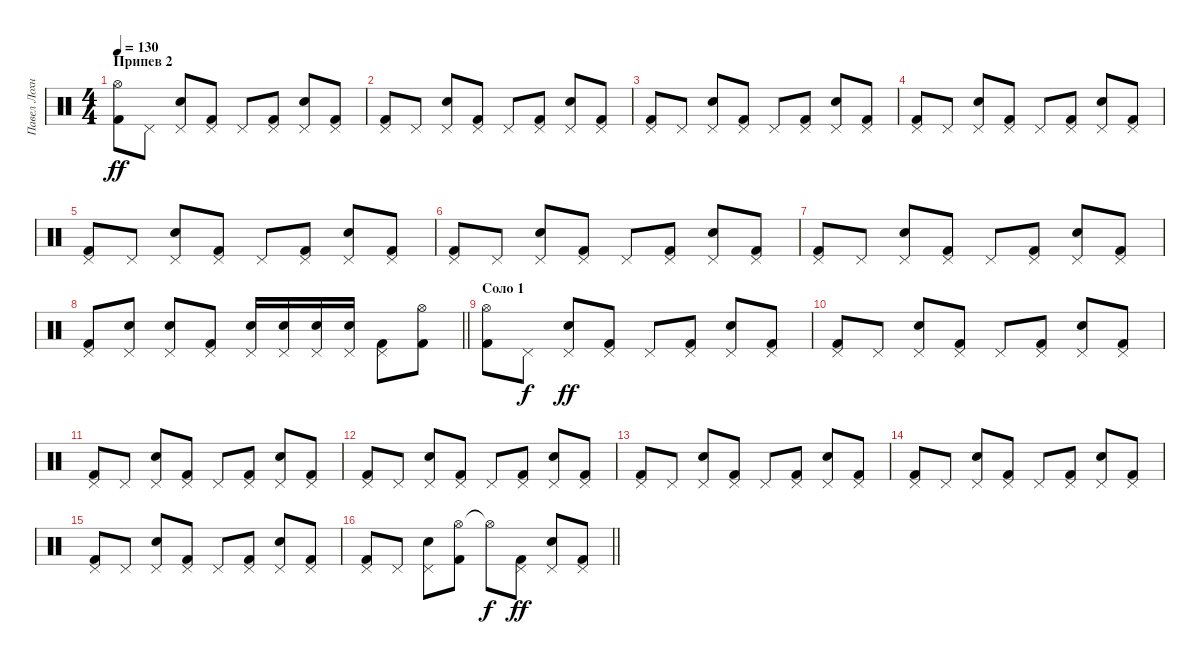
\track ("Павел Лохнин" "Павел Лохн") {instrument percussion}
\staff {score}
\articulation defaults
\ts (4 4)
\section ("" "Припев 2")
\tempo 130
\clef neutral
\ks c
("Hi-Hat (open)" "Kick (hit) 2").8{dy ff} "Pedal Hi-Hat (hit)".8 ("Pedal Hi-Hat (hit)" "Electric Snare (hit)").8 ("Pedal Hi-Hat (hit)" "Kick (hit) 2").8 "Pedal Hi-Hat (hit)".8 ("Pedal Hi-Hat (hit)" "Kick (hit) 2").8 ("Pedal Hi-Hat (hit)" "Electric Snare (hit)").8 ("Pedal Hi-Hat (hit)" "Kick (hit) 2").8 |
("Pedal Hi-Hat (hit)" "Kick (hit) 2").8 "Pedal Hi-Hat (hit)".8 ("Pedal Hi-Hat (hit)" "Electric Snare (hit)").8 ("Pedal Hi-Hat (hit)" "Kick (hit) 2").8 "Pedal Hi-Hat (hit)".8 ("Pedal Hi-Hat (hit)" "Kick (hit) 2").8 ("Pedal Hi-Hat (hit)" "Electric Snare (hit)").8 ("Pedal Hi-Hat (hit)" "Kick (hit) 2").8 |
("Pedal Hi-Hat (hit)" "Kick (hit) 2").8 "Pedal Hi-Hat (hit)".8 ("Pedal Hi-Hat (hit)" "Electric Snare (hit)").8 ("Pedal Hi-Hat (hit)" "Kick (hit) 2").8 "Pedal Hi-Hat (hit)".8 ("Pedal Hi-Hat (hit)" "Kick (hit) 2").8 ("Pedal Hi-Hat (hit)" "Electric Snare (hit)").8 ("Pedal Hi-Hat (hit)" "Kick (hit) 2").8 |
("Pedal Hi-Hat (hit)" "Kick (hit) 2").8 "Pedal Hi-Hat (hit)".8 ("Pedal Hi-Hat (hit)" "Electric Snare (hit)").8 ("Pedal Hi-Hat (hit)" "Kick (hit) 2").8 "Pedal Hi-Hat (hit)".8 ("Pedal Hi-Hat (hit)" "Kick (hit) 2").8 ("Pedal Hi-Hat (hit)" "Electric Snare (hit)").8 ("Pedal Hi-Hat (hit)" "Kick (hit) 2").8 |
("Pedal Hi-Hat (hit)" "Kick (hit) 2").8 "Pedal Hi-Hat (hit)".8 ("Pedal Hi-Hat (hit)" "Electric Snare (hit)").8 ("Pedal Hi-Hat (hit)" "Kick (hit) 2").8 "Pedal Hi-Hat (hit)".8 ("Pedal Hi-Hat (hit)" "Kick (hit) 2").8 ("Pedal Hi-Hat (hit)" "Electric Snare (hit)").8 ("Pedal Hi-Hat (hit)" "Kick (hit) 2").8 |
("Pedal Hi-Hat (hit)" "Kick (hit) 2").8 "Pedal Hi-Hat (hit)".8 ("Pedal Hi-Hat (hit)" "Electric Snare (hit)").8 ("Pedal Hi-Hat (hit)" "Kick (hit) 2").8 "Pedal Hi-Hat (hit)".8 ("Pedal Hi-Hat (hit)" "Kick (hit) 2").8 ("Pedal Hi-Hat (hit)" "Electric Snare (hit)").8 ("Pedal Hi-Hat (hit)" "Kick (hit) 2").8 |
("Pedal Hi-Hat (hit)" "Kick (hit) 2").8 "Pedal Hi-Hat (hit)".8 ("Pedal Hi-Hat (hit)" "Electric Snare (hit)").8 ("Pedal Hi-Hat (hit)" "Kick (hit) 2").8 "Pedal Hi-Hat (hit)".8 ("Pedal Hi-Hat (hit)" "Kick (hit) 2").8 ("Pedal Hi-Hat (hit)" "Electric Snare (hit)").8 ("Pedal Hi-Hat (hit)" "Kick (hit) 2").8 |
\barLineRight lightlight
("Pedal Hi-Hat (hit)" "Kick (hit) 2").8 ("Pedal Hi-Hat (hit)" "Electric Snare (hit)").8 ("Pedal Hi-Hat (hit)" "Electric Snare (hit)").8 ("Pedal Hi-Hat (hit)" "Kick (hit) 2").8 ("Pedal Hi-Hat (hit)" "Electric Snare (hit)").16 ("Pedal Hi-Hat (hit)" "Electric Snare (hit)").16 ("Pedal Hi-Hat (hit)" "Electric Snare (hit)").16 ("Pedal Hi-Hat (hit)" "Electric Snare (hit)").16 ("Pedal Hi-Hat (hit)" "Kick (hit) 2").8 ("Hi-Hat (open)" "Kick (hit) 2").8 |
\section ("" "Соло 1")
("Hi-Hat (open)" "Kick (hit) 2").8 "Pedal Hi-Hat (hit)".8{dy f} ("Pedal Hi-Hat (hit)" "Electric Snare (hit)").8{dy ff} ("Pedal Hi-Hat (hit)" "Kick (hit) 2").8 "Pedal Hi-Hat (hit)".8 ("Pedal Hi-Hat (hit)" "Kick (hit) 2").8 ("Pedal Hi-Hat (hit)" "Electric Snare (hit)").8 ("Pedal Hi-Hat (hit)" "Kick (hit) 2").8 |
("Pedal Hi-Hat (hit)" "Kick (hit) 2").8 "Pedal Hi-Hat (hit)".8 ("Pedal Hi-Hat (hit)" "Electric Snare (hit)").8 ("Pedal Hi-Hat (hit)" "Kick (hit) 2").8 "Pedal Hi-Hat (hit)".8 ("Pedal Hi-Hat (hit)" "Kick (hit) 2").8 ("Pedal Hi-Hat (hit)" "Electric Snare (hit)").8 ("Pedal Hi-Hat (hit)" "Kick (hit) 2").8 |
("Pedal Hi-Hat (hit)" "Kick (hit) 2").8 "Pedal Hi-Hat (hit)".8 ("Pedal Hi-Hat (hit)" "Electric Snare (hit)").8 ("Pedal Hi-Hat (hit)" "Kick (hit) 2").8 "Pedal Hi-Hat (hit)".8 ("Pedal Hi-Hat (hit)" "Kick (hit) 2").8 ("Pedal Hi-Hat (hit)" "Electric Snare (hit)").8 ("Pedal Hi-Hat (hit)" "Kick (hit) 2").8 |
("Pedal Hi-Hat (hit)" "Kick (hit) 2").8 "Pedal Hi-Hat (hit)".8 ("Pedal Hi-Hat (hit)" "Electric Snare (hit)").8 ("Pedal Hi-Hat (hit)" "Kick (hit) 2").8 "Pedal Hi-Hat (hit)".8 ("Pedal Hi-Hat (hit)" "Kick (hit) 2").8 ("Pedal Hi-Hat (hit)" "Electric Snare (hit)").8 ("Pedal Hi-Hat (hit)" "Kick (hit) 2").8 |
("Pedal Hi-Hat (hit)" "Kick (hit) 2").8 "Pedal Hi-Hat (hit)".8 ("Pedal Hi-Hat (hit)" "Electric Snare (hit)").8 ("Pedal Hi-Hat (hit)" "Kick (hit) 2").8 "Pedal Hi-Hat (hit)".8 ("Pedal Hi-Hat (hit)" "Kick (hit) 2").8 ("Pedal Hi-Hat (hit)" "Electric Snare (hit)").8 ("Pedal Hi-Hat (hit)" "Kick (hit) 2").8 |
("Pedal Hi-Hat (hit)" "Kick (hit) 2").8 "Pedal Hi-Hat (hit)".8 ("Pedal Hi-Hat (hit)" "Electric Snare (hit)").8 ("Pedal Hi-Hat (hit)" "Kick (hit) 2").8 "Pedal Hi-Hat (hit)".8 ("Pedal Hi-Hat (hit)" "Kick (hit) 2").8 ("Pedal Hi-Hat (hit)" "Electric Snare (hit)").8 ("Pedal Hi-Hat (hit)" "Kick (hit) 2").8 |
("Pedal Hi-Hat (hit)" "Kick (hit) 2").8 "Pedal Hi-Hat (hit)".8 ("Pedal Hi-Hat (hit)" "Electric Snare (hit)").8 ("Pedal Hi-Hat (hit)" "Kick (hit) 2").8 "Pedal Hi-Hat (hit)".8 ("Pedal Hi-Hat (hit)" "Kick (hit) 2").8 ("Pedal Hi-Hat (hit)" "Electric Snare (hit)").8 ("Pedal Hi-Hat (hit)" "Kick (hit) 2").8 |
\barLineRight lightlight
("Pedal Hi-Hat (hit)" "Kick (hit) 2").8 "Pedal Hi-Hat (hit)".8 ("Pedal Hi-Hat (hit)" "Electric Snare (hit)").8 ("Hi-Hat (open)" "Kick (hit) 2").8 "Hi-Hat (open)"{t}.8{dy f} ("Pedal Hi-Hat (hit)" "Kick (hit) 2").8{dy ff} ("Pedal Hi-Hat (hit)" "Electric Snare (hit)").8 ("Pedal Hi-Hat (hit)" "Kick (hit) 2").8
